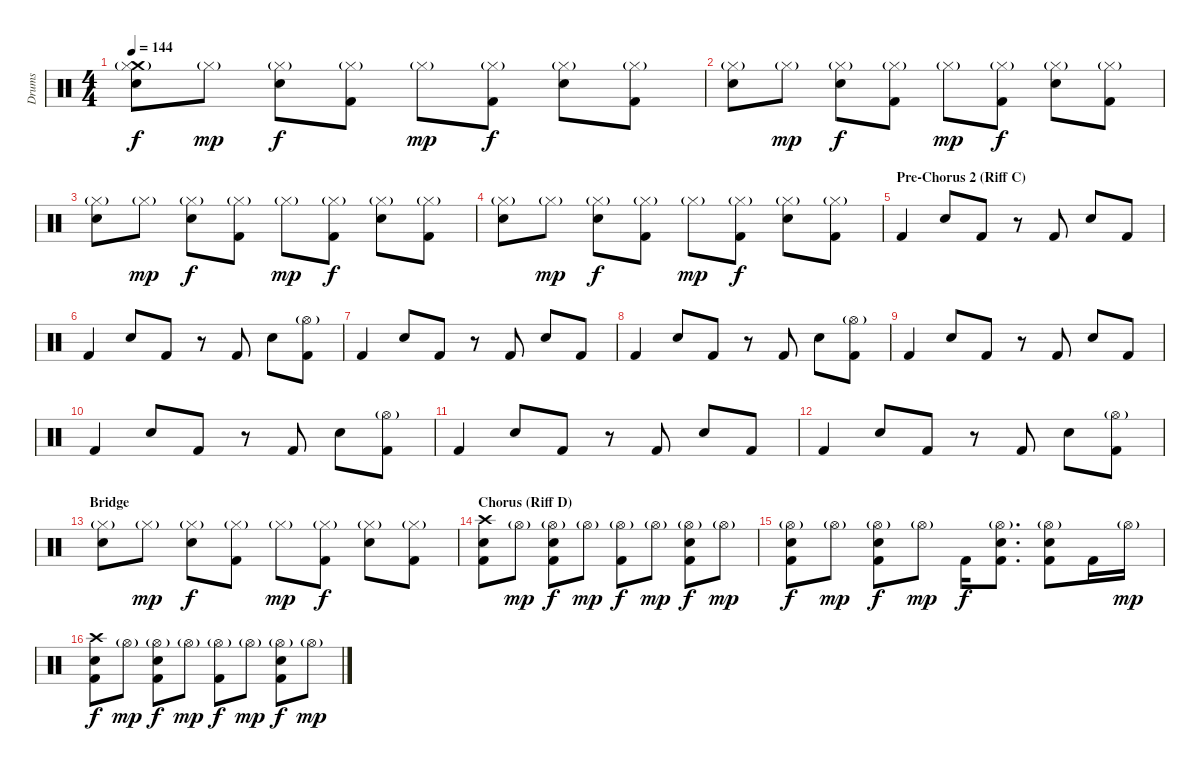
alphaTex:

\track ("Drums" "Drums") {instrument percussion}
\staff {score}
\articulation defaults
\ts (4 4)
\tempo 144
\clef neutral
\ks c
("Crash medium (hit)" "Hi-Hat (closed)"{g} "Electric Snare (hit)").8{dy f} "Hi-Hat (closed)"{g}.8{dy mp} ("Hi-Hat (closed)"{g} "Electric Snare (hit)").8{dy f} ("Hi-Hat (closed)"{g} "Kick (hit) 2").8 "Hi-Hat (closed)"{g}.8{dy mp} ("Hi-Hat (closed)"{g} "Kick (hit) 2").8{dy f} ("Hi-Hat (closed)"{g} "Electric Snare (hit)").8 ("Hi-Hat (closed)"{g} "Kick (hit) 2").8 |
("Hi-Hat (closed)"{g} "Electric Snare (hit)").8 "Hi-Hat (closed)"{g}.8{dy mp} ("Hi-Hat (closed)"{g} "Electric Snare (hit)").8{dy f} ("Hi-Hat (closed)"{g} "Kick (hit) 2").8 "Hi-Hat (closed)"{g}.8{dy mp} ("Hi-Hat (closed)"{g} "Kick (hit) 2").8{dy f} ("Hi-Hat (closed)"{g} "Electric Snare (hit)").8 ("Hi-Hat (closed)"{g} "Kick (hit) 2").8 |
("Hi-Hat (closed)"{g} "Electric Snare (hit)").8 "Hi-Hat (closed)"{g}.8{dy mp} ("Hi-Hat (closed)"{g} "Electric Snare (hit)").8{dy f} ("Hi-Hat (closed)"{g} "Kick (hit) 2").8 "Hi-Hat (closed)"{g}.8{dy mp} ("Hi-Hat (closed)"{g} "Kick (hit) 2").8{dy f} ("Hi-Hat (closed)"{g} "Electric Snare (hit)").8 ("Hi-Hat (closed)"{g} "Kick (hit) 2").8 |
("Hi-Hat (closed)"{g} "Electric Snare (hit)").8 "Hi-Hat (closed)"{g}.8{dy mp} ("Hi-Hat (closed)"{g} "Electric Snare (hit)").8{dy f} ("Hi-Hat (closed)"{g} "Kick (hit) 2").8 "Hi-Hat (closed)"{g}.8{dy mp} ("Hi-Hat (closed)"{g} "Kick (hit) 2").8{dy f} ("Hi-Hat (closed)"{g} "Electric Snare (hit)").8 ("Hi-Hat (closed)"{g} "Kick (hit) 2").8 |
\section ("" "Pre-Chorus 2 (Riff C)")
"Kick (hit) 2".4 "Snare (hit) 2".8 "Kick (hit) 2".8 r.8 "Kick (hit) 2".8 "Snare (hit) 2".8 "Kick (hit) 2".8 |
"Kick (hit) 2".4 "Snare (hit) 2".8 "Kick (hit) 2".8 r.8 "Kick (hit) 2".8 "Snare (hit) 2".8 ("Hi-Hat (open)"{g} "Kick (hit) 2").8 |
"Kick (hit) 2".4 "Snare (hit) 2".8 "Kick (hit) 2".8 r.8 "Kick (hit) 2".8 "Snare (hit) 2".8 "Kick (hit) 2".8 |
"Kick (hit) 2".4 "Snare (hit) 2".8 "Kick (hit) 2".8 r.8 "Kick (hit) 2".8 "Snare (hit) 2".8 ("Hi-Hat (open)"{g} "Kick (hit) 2").8 |
"Kick (hit) 2".4 "Snare (hit) 2".8 "Kick (hit) 2".8 r.8 "Kick (hit) 2".8 "Snare (hit) 2".8 "Kick (hit) 2".8 |
"Kick (hit) 2".4 "Snare (hit) 2".8 "Kick (hit) 2".8 r.8 "Kick (hit) 2".8 "Snare (hit) 2".8 ("Hi-Hat (open)"{g} "Kick (hit) 2").8 |
"Kick (hit) 2".4 "Snare (hit) 2".8 "Kick (hit) 2".8 r.8 "Kick (hit) 2".8 "Snare (hit) 2".8 "Kick (hit) 2".8 |
"Kick (hit) 2".4 "Snare (hit) 2".8 "Kick (hit) 2".8 r.8 "Kick (hit) 2".8 "Snare (hit) 2".8 ("Hi-Hat (open)"{g} "Kick (hit) 2").8 |
\section ("" "Bridge")
("Hi-Hat (closed)"{g} "Electric Snare (hit)").8 "Hi-Hat (closed)"{g}.8{dy mp} ("Hi-Hat (closed)"{g} "Electric Snare (hit)").8{dy f} ("Hi-Hat (closed)"{g} "Kick (hit) 2").8 "Hi-Hat (closed)"{g}.8{dy mp} ("Hi-Hat (closed)"{g} "Kick (hit) 2").8{dy f} ("Hi-Hat (closed)"{g} "Electric Snare (hit)").8 ("Hi-Hat (closed)"{g} "Kick (hit) 2").8 |
\section ("" "Chorus (Riff D)")
("Crash high (hit)" "Snare (hit) 2" "Kick (hit) 2").8 "Hi-Hat (open)"{g}.8{dy mp} ("Hi-Hat (open)"{g} "Snare (hit) 2" "Kick (hit) 2").8{dy f} "Hi-Hat (open)"{g}.8{dy mp} ("Hi-Hat (open)"{g} "Kick (hit) 2").8{dy f} "Hi-Hat (open)"{g}.8{dy mp} ("Hi-Hat (open)"{g} "Snare (hit) 2" "Kick (hit) 2").8{dy f} "Hi-Hat (open)"{g}.8{dy mp} |
("Hi-Hat (open)"{g} "Snare (hit) 2" "Kick (hit) 2").8{dy f} "Hi-Hat (open)"{g}.8{dy mp} ("Hi-Hat (open)"{g} "Snare (hit) 2" "Kick (hit) 2").8{dy f} "Hi-Hat (open)"{g}.8{dy mp} "Kick (hit) 2".16{dy f} ("Hi-Hat (open)"{g} "Snare (hit) 2" "Kick (hit) 2").8{d} ("Hi-Hat (open)"{g} "Snare (hit) 2" "Kick (hit) 2").8 "Kick (hit) 2".16 "Hi-Hat (open)"{g}.16{dy mp} |
("Crash high (hit)" "Snare (hit) 2" "Kick (hit) 2").8{dy f} "Hi-Hat (open)"{g}.8{dy mp} ("Hi-Hat (open)"{g} "Snare (hit) 2" "Kick (hit) 2").8{dy f} "Hi-Hat (open)"{g}.8{dy mp} ("Hi-Hat (open)"{g} "Kick (hit) 2").8{dy f} "Hi-Hat (open)"{g}.8{dy mp} ("Hi-Hat (open)"{g} "Snare (hit) 2" "Kick (hit) 2").8{dy f} "Hi-Hat (open)"{g}.8{dy mp}
